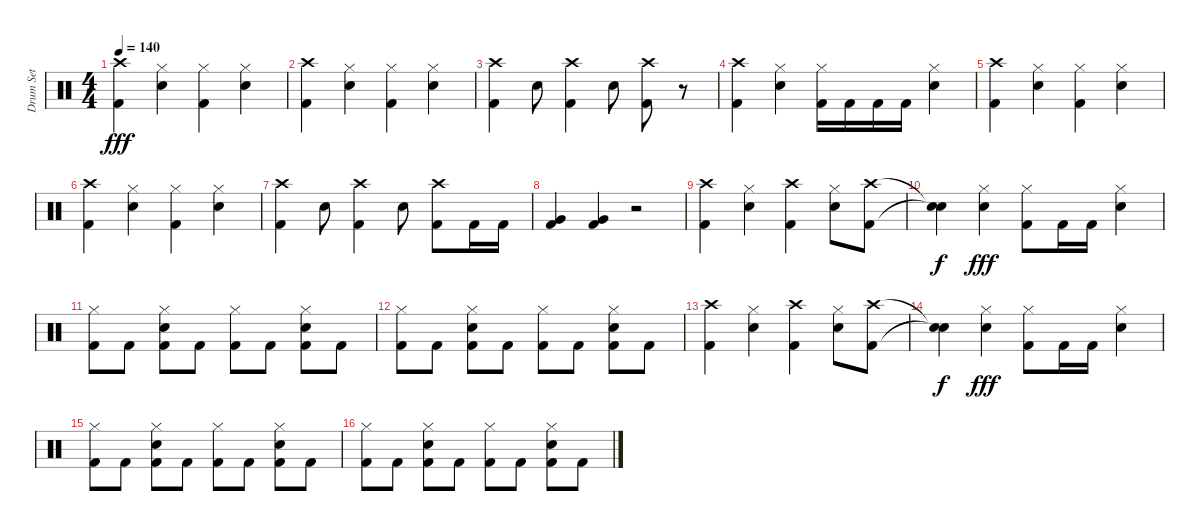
\track ("Drum Set" "Drum Set") {instrument percussion}
\staff {score}
\articulation defaults
\ts (4 4)
\tempo 140
\clef neutral
\ks c
("Kick (hit) 2" "Crash high (hit)").4{dy fff} ("Electric Snare (hit)" "Hi-Hat (closed)").4 ("Kick (hit) 2" "Hi-Hat (closed)").4 ("Electric Snare (hit)" "Hi-Hat (closed)").4 |
("Kick (hit) 2" "Crash high (hit)").4 ("Electric Snare (hit)" "Hi-Hat (closed)").4 ("Kick (hit) 2" "Hi-Hat (closed)").4 ("Electric Snare (hit)" "Hi-Hat (closed)").4 |
("Kick (hit) 2" "Crash high (hit)").4 "Electric Snare (hit)".8 ("Kick (hit) 2" "Crash high (hit)").4 "Electric Snare (hit)".8 ("Kick (hit) 2" "Crash high (hit)").8 r.8 |
("Kick (hit) 2" "Crash high (hit)").4 ("Electric Snare (hit)" "Hi-Hat (closed)").4 ("Kick (hit) 2" "Hi-Hat (closed)").16 "Kick (hit) 2".16 "Kick (hit) 2".16 "Kick (hit) 2".16 ("Electric Snare (hit)" "Hi-Hat (closed)").4 |
("Kick (hit) 2" "Crash high (hit)").4 ("Electric Snare (hit)" "Hi-Hat (closed)").4 ("Kick (hit) 2" "Hi-Hat (closed)").4 ("Electric Snare (hit)" "Hi-Hat (closed)").4 |
("Kick (hit) 2" "Crash high (hit)").4 ("Electric Snare (hit)" "Hi-Hat (closed)").4 ("Kick (hit) 2" "Hi-Hat (closed)").4 ("Electric Snare (hit)" "Hi-Hat (closed)").4 |
("Kick (hit) 2" "Crash high (hit)").4 "Electric Snare (hit)".8 ("Kick (hit) 2" "Crash high (hit)").4 "Electric Snare (hit)".8 ("Kick (hit) 2" "Crash high (hit)").8 "Kick (hit) 2".16 "Kick (hit) 2".16 |
("Very Low Tom (hit)" "Kick (hit) 2").4 ("Kick (hit) 2" "Very Low Tom (hit)").4 r.2 |
("Kick (hit) 2" "Crash high (hit)").4 ("Electric Snare (hit)" "Hi-Hat (closed)").4 ("Kick (hit) 2" "Crash high (hit)").4 ("Electric Snare (hit)" "Hi-Hat (closed)").8 ("Crash high (hit)" "Kick (hit) 2").8 |
("Snare (hit)"{t} "Snare (hit)"{t}).4{dy f} ("Electric Snare (hit)" "Hi-Hat (closed)").4{dy fff} ("Hi-Hat (closed)" "Kick (hit) 2").8 "Kick (hit) 2".16 "Kick (hit) 2".16 ("Electric Snare (hit)" "Hi-Hat (closed)").4 |
("Kick (hit) 2" "Hi-Hat (closed)").8 "Kick (hit) 2".8 ("Electric Snare (hit)" "Hi-Hat (closed)" "Kick (hit) 2").8 "Kick (hit) 2".8 ("Kick (hit) 2" "Hi-Hat (closed)").8 "Kick (hit) 2".8 ("Electric Snare (hit)" "Kick (hit) 2" "Hi-Hat (closed)").8 "Kick (hit) 2".8 |
("Hi-Hat (closed)" "Kick (hit) 2").8 "Kick (hit) 2".8 ("Electric Snare (hit)" "Kick (hit) 2" "Hi-Hat (closed)").8 "Kick (hit) 2".8 ("Hi-Hat (closed)" "Kick (hit) 2").8 "Kick (hit) 2".8 ("Electric Snare (hit)" "Kick (hit) 2" "Hi-Hat (closed)").8 "Kick (hit) 2".8 |
("Kick (hit) 2" "Crash high (hit)").4 ("Electric Snare (hit)" "Hi-Hat (closed)").4 ("Kick (hit) 2" "Crash high (hit)").4 ("Electric Snare (hit)" "Hi-Hat (closed)").8 ("Kick (hit) 2" "Crash high (hit)").8 |
("Snare (hit)"{t} "Snare (hit)"{t}).4{dy f} ("Electric Snare (hit)" "Hi-Hat (closed)").4{dy fff} ("Hi-Hat (closed)" "Kick (hit) 2").8 "Kick (hit) 2".16 "Kick (hit) 2".16 ("Electric Snare (hit)" "Hi-Hat (closed)").4 |
("Hi-Hat (closed)" "Kick (hit) 2").8 "Kick (hit) 2".8 ("Electric Snare (hit)" "Hi-Hat (closed)" "Kick (hit) 2").8 "Kick (hit) 2".8 ("Kick (hit) 2" "Hi-Hat (closed)").8 "Kick (hit) 2".8 ("Electric Snare (hit)" "Kick (hit) 2" "Hi-Hat (closed)").8 "Kick (hit) 2".8 |
("Hi-Hat (closed)" "Kick (hit) 2").8 "Kick (hit) 2".8 ("Electric Snare (hit)" "Kick (hit) 2" "Hi-Hat (closed)").8 "Kick (hit) 2".8 ("Kick (hit) 2" "Hi-Hat (closed)").8 "Kick (hit) 2".8 ("Electric Snare (hit)" "Kick (hit) 2" "Hi-Hat (closed)").8 "Kick (hit) 2".8
